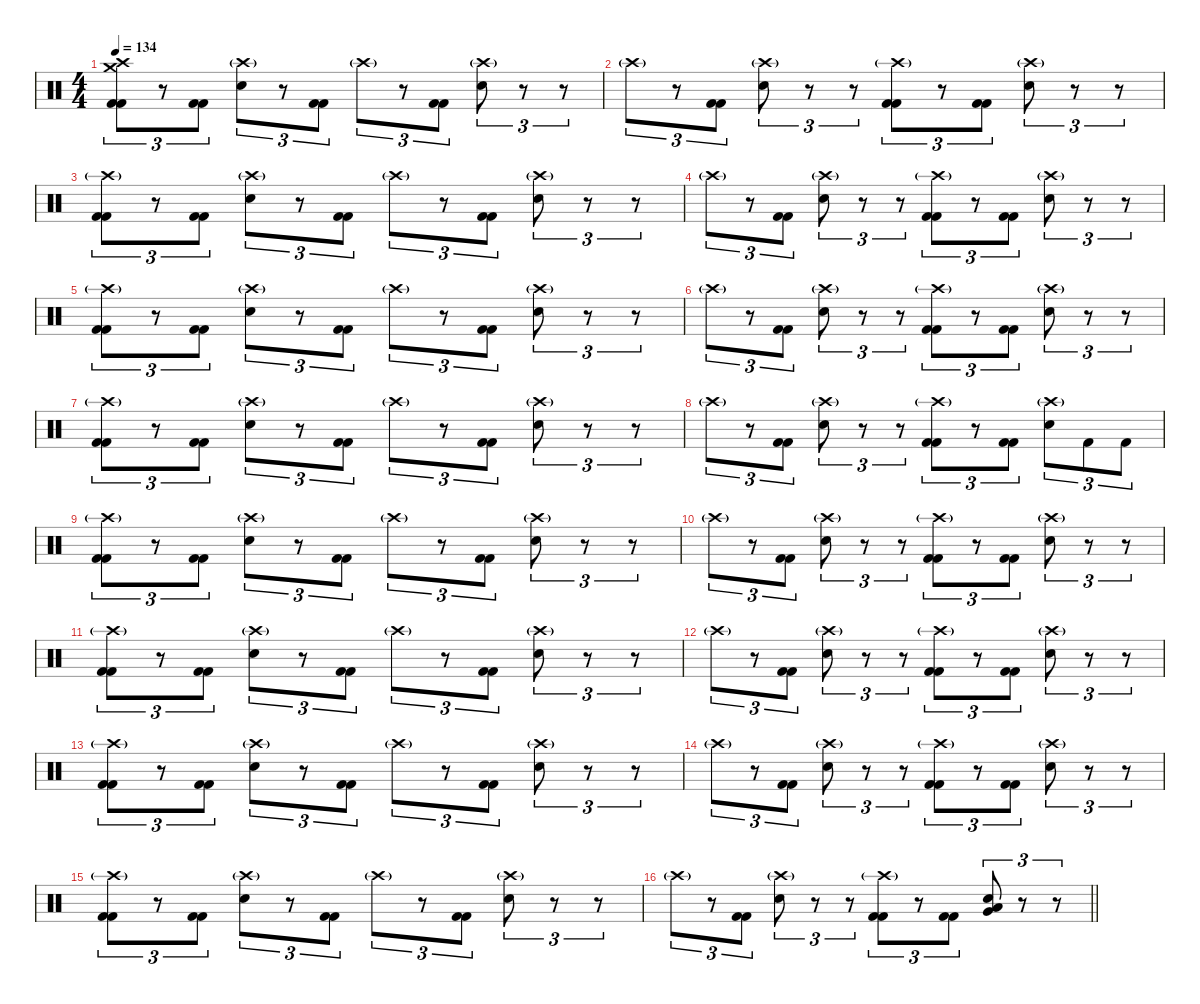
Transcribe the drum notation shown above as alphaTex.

\defaultSystemsLayout 4
\hideDynamics
\bracketExtendMode nobrackets
\singleTrackTrackNamePolicy hidden
\multiTrackTrackNamePolicy hidden
\otherSystemsTrackNameOrientation horizontal
\track ("Gene Hoglan" "drm.") {instrument percussion}
\staff {score}
\articulation defaults
\ts (4 4)
\tempo 134
\clef neutral
\ks c
("Crash high (hit)" "Crash medium (hit)" "Kick (hit) 2" "Kick (hit) 2").8{tu (3 2) dy f beam Down} r.8{tu (3 2) beam Down} ("Kick (hit) 2" "Kick (hit) 2").8{tu (3 2) beam Down} ("Crash high (hit)"{g} "Snare (hit) 2").8{tu (3 2) beam Down} r.8{tu (3 2) beam Down} ("Kick (hit) 2" "Kick (hit) 2").8{tu (3 2) beam Down} "Crash high (hit)"{g}.8{tu (3 2) dy mf beam Down} r.8{tu (3 2) beam Down} ("Kick (hit) 2" "Kick (hit) 2").8{tu (3 2) dy f beam Down} ("Crash high (hit)"{g} "Snare (hit) 2").8{tu (3 2) beam Down} r.8{tu (3 2) beam Down} r.8{tu (3 2) beam Down} |
"Crash high (hit)"{g}.8{tu (3 2) dy mf beam Down} r.8{tu (3 2) beam Down} ("Kick (hit) 2" "Kick (hit) 2").8{tu (3 2) dy f beam Down} ("Crash high (hit)"{g} "Snare (hit) 2").8{tu (3 2) beam Down} r.8{tu (3 2) beam Down} r.8{tu (3 2) beam Down} ("Crash high (hit)"{g} "Kick (hit) 2" "Kick (hit) 2").8{tu (3 2) beam Down} r.8{tu (3 2) beam Down} ("Kick (hit) 2" "Kick (hit) 2").8{tu (3 2) beam Down} ("Crash high (hit)"{g} "Snare (hit) 2").8{tu (3 2) beam Down} r.8{tu (3 2) beam Down} r.8{tu (3 2) beam Down} |
("Crash high (hit)"{g} "Kick (hit) 2" "Kick (hit) 2").8{tu (3 2) beam Down} r.8{tu (3 2) beam Down} ("Kick (hit) 2" "Kick (hit) 2").8{tu (3 2) beam Down} ("Crash high (hit)"{g} "Snare (hit) 2").8{tu (3 2) beam Down} r.8{tu (3 2) beam Down} ("Kick (hit) 2" "Kick (hit) 2").8{tu (3 2) beam Down} "Crash high (hit)"{g}.8{tu (3 2) dy mf beam Down} r.8{tu (3 2) beam Down} ("Kick (hit) 2" "Kick (hit) 2").8{tu (3 2) dy f beam Down} ("Crash high (hit)"{g} "Snare (hit) 2").8{tu (3 2) beam Down} r.8{tu (3 2) beam Down} r.8{tu (3 2) beam Down} |
"Crash high (hit)"{g}.8{tu (3 2) dy mf beam Down} r.8{tu (3 2) beam Down} ("Kick (hit) 2" "Kick (hit) 2").8{tu (3 2) dy f beam Down} ("Crash high (hit)"{g} "Snare (hit) 2").8{tu (3 2) beam Down} r.8{tu (3 2) beam Down} r.8{tu (3 2) beam Down} ("Crash high (hit)"{g} "Kick (hit) 2" "Kick (hit) 2").8{tu (3 2) beam Down} r.8{tu (3 2) beam Down} ("Kick (hit) 2" "Kick (hit) 2").8{tu (3 2) beam Down} ("Crash high (hit)"{g} "Snare (hit) 2").8{tu (3 2) beam Down} r.8{tu (3 2) beam Down} r.8{tu (3 2) beam Down} |
("Crash high (hit)"{g} "Kick (hit) 2" "Kick (hit) 2").8{tu (3 2) beam Down} r.8{tu (3 2) beam Down} ("Kick (hit) 2" "Kick (hit) 2").8{tu (3 2) beam Down} ("Crash high (hit)"{g} "Snare (hit) 2").8{tu (3 2) beam Down} r.8{tu (3 2) beam Down} ("Kick (hit) 2" "Kick (hit) 2").8{tu (3 2) beam Down} "Crash high (hit)"{g}.8{tu (3 2) dy mf beam Down} r.8{tu (3 2) beam Down} ("Kick (hit) 2" "Kick (hit) 2").8{tu (3 2) dy f beam Down} ("Crash high (hit)"{g} "Snare (hit) 2").8{tu (3 2) beam Down} r.8{tu (3 2) beam Down} r.8{tu (3 2) beam Down} |
"Crash high (hit)"{g}.8{tu (3 2) dy mf beam Down} r.8{tu (3 2) beam Down} ("Kick (hit) 2" "Kick (hit) 2").8{tu (3 2) dy f beam Down} ("Crash high (hit)"{g} "Snare (hit) 2").8{tu (3 2) beam Down} r.8{tu (3 2) beam Down} r.8{tu (3 2) beam Down} ("Crash high (hit)"{g} "Kick (hit) 2" "Kick (hit) 2").8{tu (3 2) beam Down} r.8{tu (3 2) beam Down} ("Kick (hit) 2" "Kick (hit) 2").8{tu (3 2) beam Down} ("Crash high (hit)"{g} "Snare (hit) 2").8{tu (3 2) beam Down} r.8{tu (3 2) beam Down} r.8{tu (3 2) beam Down} |
("Crash high (hit)"{g} "Kick (hit) 2" "Kick (hit) 2").8{tu (3 2) beam Down} r.8{tu (3 2) beam Down} ("Kick (hit) 2" "Kick (hit) 2").8{tu (3 2) beam Down} ("Crash high (hit)"{g} "Snare (hit) 2").8{tu (3 2) beam Down} r.8{tu (3 2) beam Down} ("Kick (hit) 2" "Kick (hit) 2").8{tu (3 2) beam Down} "Crash high (hit)"{g}.8{tu (3 2) dy mf beam Down} r.8{tu (3 2) beam Down} ("Kick (hit) 2" "Kick (hit) 2").8{tu (3 2) dy f beam Down} ("Crash high (hit)"{g} "Snare (hit) 2").8{tu (3 2) beam Down} r.8{tu (3 2) beam Down} r.8{tu (3 2) beam Down} |
"Crash high (hit)"{g}.8{tu (3 2) dy mf beam Down} r.8{tu (3 2) beam Down} ("Kick (hit) 2" "Kick (hit) 2").8{tu (3 2) dy f beam Down} ("Crash high (hit)"{g} "Snare (hit) 2").8{tu (3 2) beam Down} r.8{tu (3 2) beam Down} r.8{tu (3 2) beam Down} ("Crash high (hit)"{g} "Kick (hit) 2" "Kick (hit) 2").8{tu (3 2) beam Down} r.8{tu (3 2) beam Down} ("Kick (hit) 2" "Kick (hit) 2").8{tu (3 2) beam Down} ("Crash high (hit)"{g} "Snare (hit) 2").8{tu (3 2) beam Down} "Kick (hit) 2".8{tu (3 2) beam Down} "Kick (hit) 2".8{tu (3 2) beam Down} |
("Crash high (hit)"{g} "Kick (hit) 2" "Kick (hit) 2").8{tu (3 2) beam Down} r.8{tu (3 2) beam Down} ("Kick (hit) 2" "Kick (hit) 2").8{tu (3 2) beam Down} ("Crash high (hit)"{g} "Snare (hit) 2").8{tu (3 2) beam Down} r.8{tu (3 2) beam Down} ("Kick (hit) 2" "Kick (hit) 2").8{tu (3 2) beam Down} "Crash high (hit)"{g}.8{tu (3 2) dy mf beam Down} r.8{tu (3 2) beam Down} ("Kick (hit) 2" "Kick (hit) 2").8{tu (3 2) dy f beam Down} ("Crash high (hit)"{g} "Snare (hit) 2").8{tu (3 2) beam Down} r.8{tu (3 2) beam Down} r.8{tu (3 2) beam Down} |
"Crash high (hit)"{g}.8{tu (3 2) dy mf beam Down} r.8{tu (3 2) beam Down} ("Kick (hit) 2" "Kick (hit) 2").8{tu (3 2) dy f beam Down} ("Crash high (hit)"{g} "Snare (hit) 2").8{tu (3 2) beam Down} r.8{tu (3 2) beam Down} r.8{tu (3 2) beam Down} ("Crash high (hit)"{g} "Kick (hit) 2" "Kick (hit) 2").8{tu (3 2) beam Down} r.8{tu (3 2) beam Down} ("Kick (hit) 2" "Kick (hit) 2").8{tu (3 2) beam Down} ("Crash high (hit)"{g} "Snare (hit) 2").8{tu (3 2) beam Down} r.8{tu (3 2) beam Down} r.8{tu (3 2) beam Down} |
("Crash high (hit)"{g} "Kick (hit) 2" "Kick (hit) 2").8{tu (3 2) beam Down} r.8{tu (3 2) beam Down} ("Kick (hit) 2" "Kick (hit) 2").8{tu (3 2) beam Down} ("Crash high (hit)"{g} "Snare (hit) 2").8{tu (3 2) beam Down} r.8{tu (3 2) beam Down} ("Kick (hit) 2" "Kick (hit) 2").8{tu (3 2) beam Down} "Crash high (hit)"{g}.8{tu (3 2) dy mf beam Down} r.8{tu (3 2) beam Down} ("Kick (hit) 2" "Kick (hit) 2").8{tu (3 2) dy f beam Down} ("Crash high (hit)"{g} "Snare (hit) 2").8{tu (3 2) beam Down} r.8{tu (3 2) beam Down} r.8{tu (3 2) beam Down} |
"Crash high (hit)"{g}.8{tu (3 2) dy mf beam Down} r.8{tu (3 2) beam Down} ("Kick (hit) 2" "Kick (hit) 2").8{tu (3 2) dy f beam Down} ("Crash high (hit)"{g} "Snare (hit) 2").8{tu (3 2) beam Down} r.8{tu (3 2) beam Down} r.8{tu (3 2) beam Down} ("Crash high (hit)"{g} "Kick (hit) 2" "Kick (hit) 2").8{tu (3 2) beam Down} r.8{tu (3 2) beam Down} ("Kick (hit) 2" "Kick (hit) 2").8{tu (3 2) beam Down} ("Crash high (hit)"{g} "Snare (hit) 2").8{tu (3 2) beam Down} r.8{tu (3 2) beam Down} r.8{tu (3 2) beam Down} |
("Crash high (hit)"{g} "Kick (hit) 2" "Kick (hit) 2").8{tu (3 2) beam Down} r.8{tu (3 2) beam Down} ("Kick (hit) 2" "Kick (hit) 2").8{tu (3 2) beam Down} ("Crash high (hit)"{g} "Snare (hit) 2").8{tu (3 2) beam Down} r.8{tu (3 2) beam Down} ("Kick (hit) 2" "Kick (hit) 2").8{tu (3 2) beam Down} "Crash high (hit)"{g}.8{tu (3 2) dy mf beam Down} r.8{tu (3 2) beam Down} ("Kick (hit) 2" "Kick (hit) 2").8{tu (3 2) dy f beam Down} ("Crash high (hit)"{g} "Snare (hit) 2").8{tu (3 2) beam Down} r.8{tu (3 2) beam Down} r.8{tu (3 2) beam Down} |
"Crash high (hit)"{g}.8{tu (3 2) dy mf beam Down} r.8{tu (3 2) beam Down} ("Kick (hit) 2" "Kick (hit) 2").8{tu (3 2) dy f beam Down} ("Crash high (hit)"{g} "Snare (hit) 2").8{tu (3 2) beam Down} r.8{tu (3 2) beam Down} r.8{tu (3 2) beam Down} ("Crash high (hit)"{g} "Kick (hit) 2" "Kick (hit) 2").8{tu (3 2) beam Down} r.8{tu (3 2) beam Down} ("Kick (hit) 2" "Kick (hit) 2").8{tu (3 2) beam Down} ("Crash high (hit)"{g} "Snare (hit) 2").8{tu (3 2) beam Down} r.8{tu (3 2) beam Down} r.8{tu (3 2) beam Down} |
("Crash high (hit)"{g} "Kick (hit) 2" "Kick (hit) 2").8{tu (3 2) beam Down} r.8{tu (3 2) beam Down} ("Kick (hit) 2" "Kick (hit) 2").8{tu (3 2) beam Down} ("Crash high (hit)"{g} "Snare (hit) 2").8{tu (3 2) beam Down} r.8{tu (3 2) beam Down} ("Kick (hit) 2" "Kick (hit) 2").8{tu (3 2) beam Down} "Crash high (hit)"{g}.8{tu (3 2) dy mf beam Down} r.8{tu (3 2) beam Down} ("Kick (hit) 2" "Kick (hit) 2").8{tu (3 2) dy f beam Down} ("Crash high (hit)"{g} "Snare (hit) 2").8{tu (3 2) beam Down} r.8{tu (3 2) beam Down} r.8{tu (3 2) beam Down} |
\barLineRight lightlight "Crash high (hit)"{g}.8{tu (3 2) dy mf beam Down}
r.8{tu (3 2) beam Down} ("Kick (hit) 2" "Kick (hit) 2").8{tu (3 2) dy f beam Down} ("Crash high (hit)"{g} "Snare (hit) 2").8{tu (3 2) beam Down} r.8{tu (3 2) beam Down} r.8{tu (3 2) beam Down} ("Crash high (hit)"{g} "Kick (hit) 2" "Kick (hit) 2").8{tu (3 2) beam Down} r.8{tu (3 2) beam Down} ("Kick (hit) 2" "Kick (hit) 2").8{tu (3 2) beam Down} ("Snare (hit) 2" "Very Low Tom (hit)" "Low Floor Tom (hit)").8{tu (3 2) beam Up} r.8{tu (3 2) beam Up} r.8{tu (3 2) beam Up}
